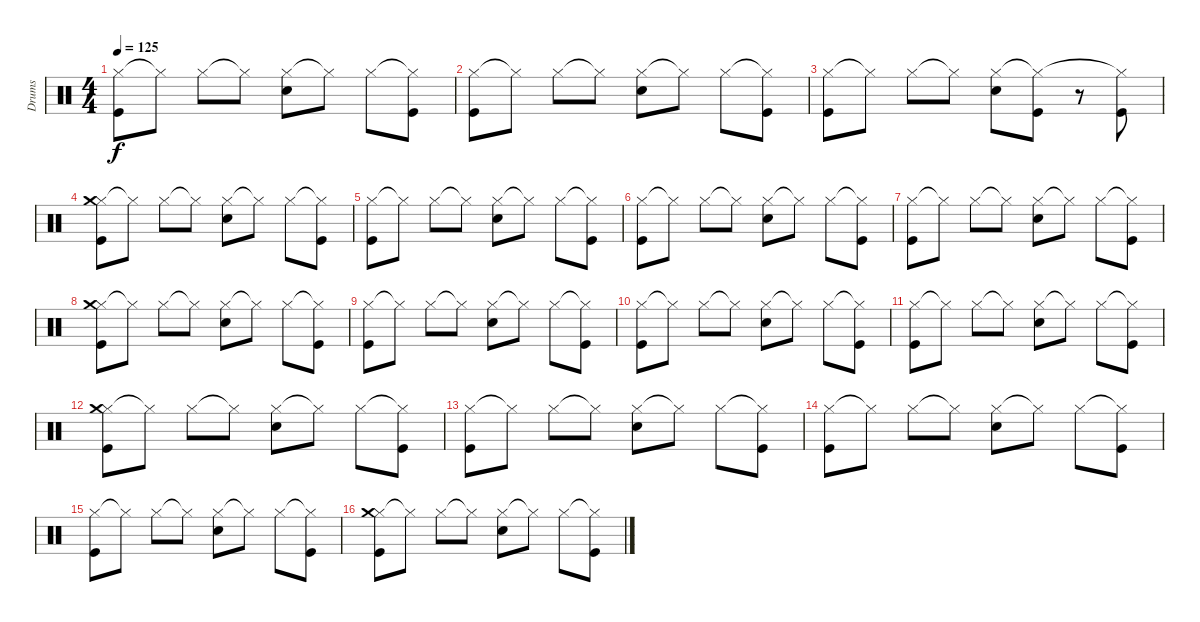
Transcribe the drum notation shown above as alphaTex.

\track ("Drums" "Drums") {instrument percussion}
\staff {score}
\articulation defaults
\ts (4 4)
\tempo 125
\clef neutral
\ks c
("Hi-Hat (closed)" "Kick (hit)").8{dy f} "Hi-Hat (closed)"{t}.8 "Hi-Hat (closed)".8 "Hi-Hat (closed)"{t}.8 ("Hi-Hat (closed)" "Snare (hit) 2").8 "Hi-Hat (closed)"{t}.8 "Hi-Hat (closed)".8 ("Hi-Hat (closed)"{t} "Kick (hit)").8 |
("Hi-Hat (closed)" "Kick (hit)").8 "Hi-Hat (closed)"{t}.8 "Hi-Hat (closed)".8 "Hi-Hat (closed)"{t}.8 ("Hi-Hat (closed)" "Snare (hit) 2").8 "Hi-Hat (closed)"{t}.8 "Hi-Hat (closed)".8 ("Hi-Hat (closed)"{t} "Kick (hit)").8 |
("Hi-Hat (closed)" "Kick (hit)").8 "Hi-Hat (closed)"{t}.8 "Hi-Hat (closed)".8 "Hi-Hat (closed)"{t}.8 ("Hi-Hat (closed)" "Snare (hit) 2").8 ("Hi-Hat (closed)"{t} "Kick (hit)").8 r.8 ("Hi-Hat (closed)"{t} "Kick (hit)").8 |
("Hi-Hat (closed)" "Kick (hit)" "Crash medium (hit)").8 "Hi-Hat (closed)"{t}.8 "Hi-Hat (closed)".8 "Hi-Hat (closed)"{t}.8 ("Hi-Hat (closed)" "Snare (hit) 2").8 "Hi-Hat (closed)"{t}.8 "Hi-Hat (closed)".8 ("Hi-Hat (closed)"{t} "Kick (hit)").8 |
("Hi-Hat (closed)" "Kick (hit)").8 "Hi-Hat (closed)"{t}.8 "Hi-Hat (closed)".8 "Hi-Hat (closed)"{t}.8 ("Hi-Hat (closed)" "Snare (hit) 2").8 "Hi-Hat (closed)"{t}.8 "Hi-Hat (closed)".8 ("Hi-Hat (closed)"{t} "Kick (hit)").8 |
("Hi-Hat (closed)" "Kick (hit)").8 "Hi-Hat (closed)"{t}.8 "Hi-Hat (closed)".8 "Hi-Hat (closed)"{t}.8 ("Hi-Hat (closed)" "Snare (hit) 2").8 "Hi-Hat (closed)"{t}.8 "Hi-Hat (closed)".8 ("Hi-Hat (closed)"{t} "Kick (hit)").8 |
("Hi-Hat (closed)" "Kick (hit)").8 "Hi-Hat (closed)"{t}.8 "Hi-Hat (closed)".8 "Hi-Hat (closed)"{t}.8 ("Hi-Hat (closed)" "Snare (hit) 2").8 "Hi-Hat (closed)"{t}.8 "Hi-Hat (closed)".8 ("Hi-Hat (closed)"{t} "Kick (hit)").8 |
("Hi-Hat (closed)" "Kick (hit)" "Crash medium (hit)").8 "Hi-Hat (closed)"{t}.8 "Hi-Hat (closed)".8 "Hi-Hat (closed)"{t}.8 ("Hi-Hat (closed)" "Snare (hit) 2").8 "Hi-Hat (closed)"{t}.8 "Hi-Hat (closed)".8 ("Hi-Hat (closed)"{t} "Kick (hit)").8 |
("Hi-Hat (closed)" "Kick (hit)").8 "Hi-Hat (closed)"{t}.8 "Hi-Hat (closed)".8 "Hi-Hat (closed)"{t}.8 ("Hi-Hat (closed)" "Snare (hit) 2").8 "Hi-Hat (closed)"{t}.8 "Hi-Hat (closed)".8 ("Hi-Hat (closed)"{t} "Kick (hit)").8 |
("Hi-Hat (closed)" "Kick (hit)").8 "Hi-Hat (closed)"{t}.8 "Hi-Hat (closed)".8 "Hi-Hat (closed)"{t}.8 ("Hi-Hat (closed)" "Snare (hit) 2").8 "Hi-Hat (closed)"{t}.8 "Hi-Hat (closed)".8 ("Hi-Hat (closed)"{t} "Kick (hit)").8 |
("Hi-Hat (closed)" "Kick (hit)").8 "Hi-Hat (closed)"{t}.8 "Hi-Hat (closed)".8 "Hi-Hat (closed)"{t}.8 ("Hi-Hat (closed)" "Snare (hit) 2").8 "Hi-Hat (closed)"{t}.8 "Hi-Hat (closed)".8 ("Hi-Hat (closed)"{t} "Kick (hit)").8 |
("Hi-Hat (closed)" "Kick (hit)" "Crash medium (hit)").8 "Hi-Hat (closed)"{t}.8 "Hi-Hat (closed)".8 "Hi-Hat (closed)"{t}.8 ("Hi-Hat (closed)" "Snare (hit) 2").8 "Hi-Hat (closed)"{t}.8 "Hi-Hat (closed)".8 ("Hi-Hat (closed)"{t} "Kick (hit)").8 |
("Hi-Hat (closed)" "Kick (hit)").8 "Hi-Hat (closed)"{t}.8 "Hi-Hat (closed)".8 "Hi-Hat (closed)"{t}.8 ("Hi-Hat (closed)" "Snare (hit) 2").8 "Hi-Hat (closed)"{t}.8 "Hi-Hat (closed)".8 ("Hi-Hat (closed)"{t} "Kick (hit)").8 |
("Hi-Hat (closed)" "Kick (hit)").8 "Hi-Hat (closed)"{t}.8 "Hi-Hat (closed)".8 "Hi-Hat (closed)"{t}.8 ("Hi-Hat (closed)" "Snare (hit) 2").8 "Hi-Hat (closed)"{t}.8 "Hi-Hat (closed)".8 ("Hi-Hat (closed)"{t} "Kick (hit)").8 |
("Hi-Hat (closed)" "Kick (hit)").8 "Hi-Hat (closed)"{t}.8 "Hi-Hat (closed)".8 "Hi-Hat (closed)"{t}.8 ("Hi-Hat (closed)" "Snare (hit) 2").8 "Hi-Hat (closed)"{t}.8 "Hi-Hat (closed)".8 ("Hi-Hat (closed)"{t} "Kick (hit)").8 |
("Hi-Hat (closed)" "Kick (hit)" "Crash medium (hit)").8 "Hi-Hat (closed)"{t}.8 "Hi-Hat (closed)".8 "Hi-Hat (closed)"{t}.8 ("Hi-Hat (closed)" "Snare (hit) 2").8 "Hi-Hat (closed)"{t}.8 "Hi-Hat (closed)".8 ("Hi-Hat (closed)"{t} "Kick (hit)").8
